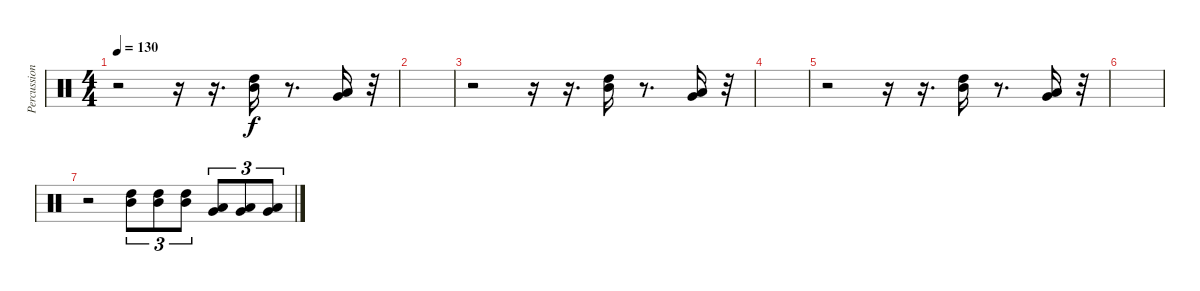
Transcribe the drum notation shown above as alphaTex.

\track ("Percussion" "Percussion") {instrument percussion bank 177}
\staff {score}
\articulation defaults
\ts (4 4)
\tempo 130
\clef neutral
\ks c
r.2{dy f} r.16 r.16{d} ("High Tom (hit)" "Mid Tom (hit)").16 r.8{d} ("Low Tom (hit)" "Very Low Tom (hit)").16 r.32 |
|
r.2 r.16 r.16{d} ("High Tom (hit)" "Mid Tom (hit)").16 r.8{d} ("Low Tom (hit)" "Very Low Tom (hit)").16 r.32 |
|
r.2 r.16 r.16{d} ("High Tom (hit)" "Mid Tom (hit)").16 r.8{d} ("Low Tom (hit)" "Very Low Tom (hit)").16 r.32 |
|
r.2 ("High Tom (hit)" "Mid Tom (hit)").8{tu (3 2)} ("High Tom (hit)" "Mid Tom (hit)").8{tu (3 2)} ("High Tom (hit)" "Mid Tom (hit)").8{tu (3 2)} ("Low Tom (hit)" "Very Low Tom (hit)").8{tu (3 2)} ("Low Tom (hit)" "Very Low Tom (hit)").8{tu (3 2)} ("Low Tom (hit)" "Very Low Tom (hit)").8{tu (3 2)}
